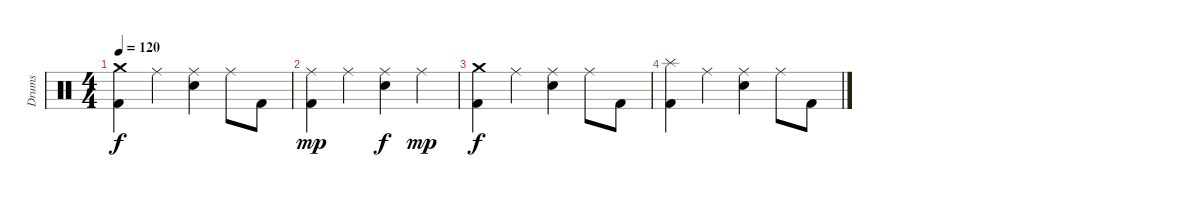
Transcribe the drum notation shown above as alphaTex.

\track ("Drums" "Drums") {instrument percussion}
\staff {score}
\articulation defaults
\ts (4 4)
\tempo 120
\clef neutral
\ks c
("Crash medium (hit)" "Kick (hit) 2").4{dy f} "Ride (middle)".4 ("Ride (middle)" "Snare (hit) 2").4 "Ride (middle)".8 "Kick (hit) 2".8 |
("Ride (middle)" "Kick (hit) 2").4{dy mp} "Ride (middle)".4 ("Ride (middle)" "Snare (hit) 2").4{dy f} "Ride (middle)".4{dy mp} |
("Crash medium (hit)" "Kick (hit) 2").4{dy f} "Ride (middle)".4 ("Ride (middle)" "Snare (hit) 2").4 "Ride (middle)".8 "Kick (hit) 2".8 |
("Splash (hit)" "Kick (hit) 2").4 "Ride (middle)".4 ("Ride (middle)" "Snare (hit) 2").4 "Ride (middle)".8 "Kick (hit) 2".8
